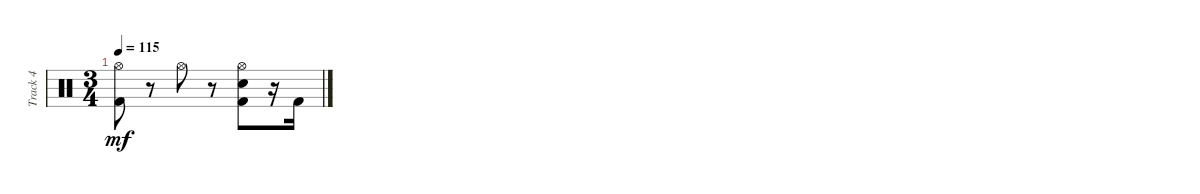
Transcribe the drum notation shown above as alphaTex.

\track ("Track 4" "Track 4") {instrument percussion}
\staff {score}
\articulation defaults
\ts (3 4)
\tempo 115
\clef neutral
\ks c
("Hi-Hat (open)" "Kick (hit) 2").8{dy mf} r.8 "Hi-Hat (open)".8 r.8 ("Hi-Hat (open)" "Electric Snare (hit)" "Kick (hit) 2").8 r.16 "Kick (hit) 2".16
